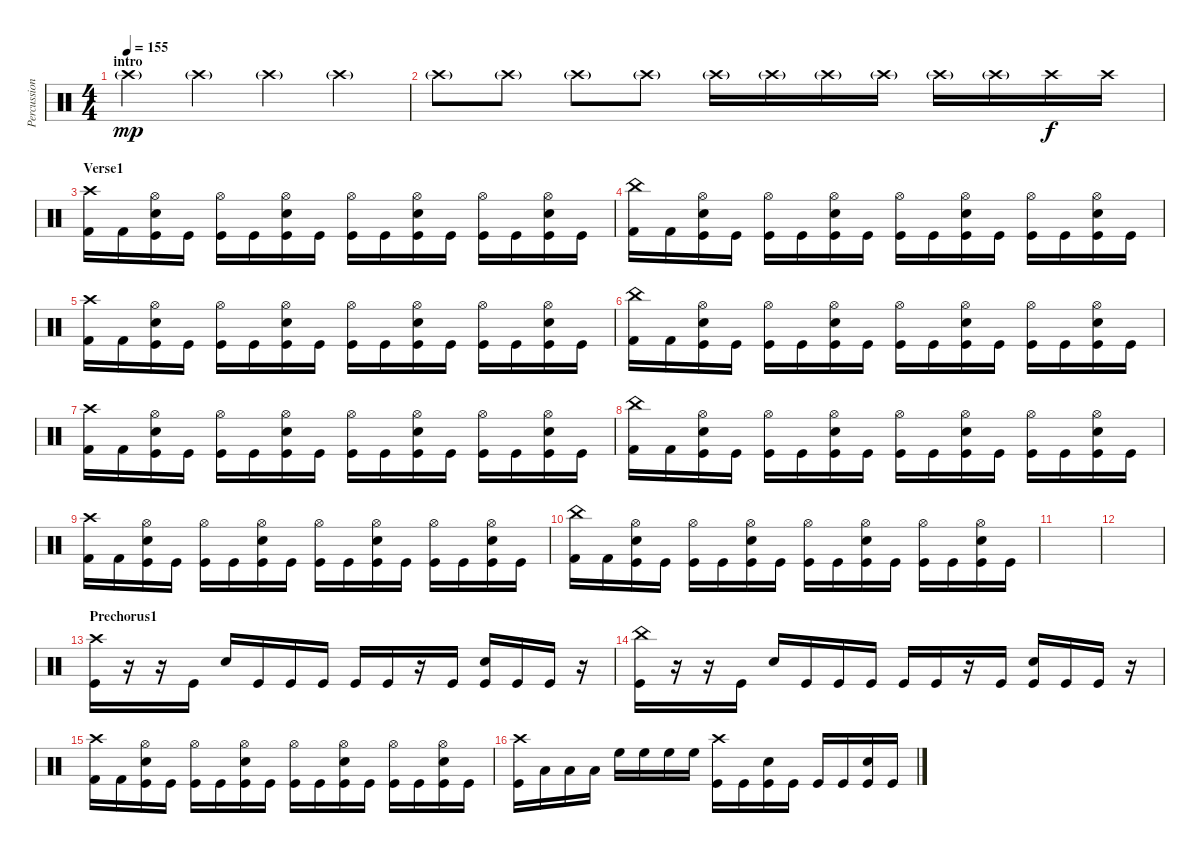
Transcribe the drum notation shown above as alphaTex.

\track ("Percussion" "Percussion") {instrument percussion}
\staff {score}
\articulation defaults
\ts (4 4)
\section ("" "intro")
\tempo 155
\clef neutral
\ks c "Crash high (hit)"{g}.4{dy mp} "Crash high (hit)"{g}.4 "Crash high (hit)"{g}.4 "Crash high (hit)"{g}.4
|
"Crash high (hit)"{g}.8 "Crash high (hit)"{g}.8 "Crash high (hit)"{g}.8 "Crash high (hit)"{g}.8 "Crash high (hit)"{g}.16 "Crash high (hit)"{g}.16 "Crash high (hit)"{g}.16 "Crash high (hit)"{g}.16 "Crash high (hit)"{g}.16 "Crash high (hit)"{g}.16 "Crash high (hit)".16{dy f} "Crash high (hit)".16 |
\section ("" "Verse1")
("Crash high (hit)" "Kick (hit) 2").16 "Kick (hit) 2".16 ("Hi-Hat (open)" "Electric Snare (hit)" "Kick (hit)").16 "Kick (hit)".16 ("Hi-Hat (open)" "Kick (hit)").16 "Kick (hit)".16 ("Hi-Hat (open)" "Electric Snare (hit)" "Kick (hit)").16 "Kick (hit)".16 ("Hi-Hat (open)" "Kick (hit)").16 "Kick (hit)".16 ("Hi-Hat (open)" "Electric Snare (hit)" "Kick (hit)").16 "Kick (hit)".16 ("Hi-Hat (open)" "Kick (hit)").16 "Kick (hit)".16 ("Hi-Hat (open)" "Electric Snare (hit)" "Kick (hit)").16 "Kick (hit)".16 |
("China (hit)" "Kick (hit) 2").16 "Kick (hit) 2".16 ("Hi-Hat (open)" "Electric Snare (hit)" "Kick (hit)").16 "Kick (hit)".16 ("Hi-Hat (open)" "Kick (hit)").16 "Kick (hit)".16 ("Hi-Hat (open)" "Electric Snare (hit)" "Kick (hit)").16 "Kick (hit)".16 ("Hi-Hat (open)" "Kick (hit)").16 "Kick (hit)".16 ("Hi-Hat (open)" "Electric Snare (hit)" "Kick (hit)").16 "Kick (hit)".16 ("Hi-Hat (open)" "Kick (hit)").16 "Kick (hit)".16 ("Hi-Hat (open)" "Electric Snare (hit)" "Kick (hit)").16 "Kick (hit)".16 |
("Crash high (hit)" "Kick (hit) 2").16 "Kick (hit) 2".16 ("Hi-Hat (open)" "Electric Snare (hit)" "Kick (hit)").16 "Kick (hit)".16 ("Hi-Hat (open)" "Kick (hit)").16 "Kick (hit)".16 ("Hi-Hat (open)" "Electric Snare (hit)" "Kick (hit)").16 "Kick (hit)".16 ("Hi-Hat (open)" "Kick (hit)").16 "Kick (hit)".16 ("Hi-Hat (open)" "Electric Snare (hit)" "Kick (hit)").16 "Kick (hit)".16 ("Hi-Hat (open)" "Kick (hit)").16 "Kick (hit)".16 ("Hi-Hat (open)" "Electric Snare (hit)" "Kick (hit)").16 "Kick (hit)".16 |
("China (hit)" "Kick (hit) 2").16 "Kick (hit) 2".16 ("Hi-Hat (open)" "Electric Snare (hit)" "Kick (hit)").16 "Kick (hit)".16 ("Hi-Hat (open)" "Kick (hit)").16 "Kick (hit)".16 ("Hi-Hat (open)" "Electric Snare (hit)" "Kick (hit)").16 "Kick (hit)".16 ("Hi-Hat (open)" "Kick (hit)").16 "Kick (hit)".16 ("Hi-Hat (open)" "Electric Snare (hit)" "Kick (hit)").16 "Kick (hit)".16 ("Hi-Hat (open)" "Kick (hit)").16 "Kick (hit)".16 ("Hi-Hat (open)" "Electric Snare (hit)" "Kick (hit)").16 "Kick (hit)".16 |
("Crash high (hit)" "Kick (hit) 2").16 "Kick (hit) 2".16 ("Hi-Hat (open)" "Electric Snare (hit)" "Kick (hit)").16 "Kick (hit)".16 ("Hi-Hat (open)" "Kick (hit)").16 "Kick (hit)".16 ("Hi-Hat (open)" "Electric Snare (hit)" "Kick (hit)").16 "Kick (hit)".16 ("Hi-Hat (open)" "Kick (hit)").16 "Kick (hit)".16 ("Hi-Hat (open)" "Electric Snare (hit)" "Kick (hit)").16 "Kick (hit)".16 ("Hi-Hat (open)" "Kick (hit)").16 "Kick (hit)".16 ("Hi-Hat (open)" "Electric Snare (hit)" "Kick (hit)").16 "Kick (hit)".16 |
("China (hit)" "Kick (hit) 2").16 "Kick (hit) 2".16 ("Hi-Hat (open)" "Electric Snare (hit)" "Kick (hit)").16 "Kick (hit)".16 ("Hi-Hat (open)" "Kick (hit)").16 "Kick (hit)".16 ("Hi-Hat (open)" "Electric Snare (hit)" "Kick (hit)").16 "Kick (hit)".16 ("Hi-Hat (open)" "Kick (hit)").16 "Kick (hit)".16 ("Hi-Hat (open)" "Electric Snare (hit)" "Kick (hit)").16 "Kick (hit)".16 ("Hi-Hat (open)" "Kick (hit)").16 "Kick (hit)".16 ("Hi-Hat (open)" "Electric Snare (hit)" "Kick (hit)").16 "Kick (hit)".16 |
("Crash high (hit)" "Kick (hit) 2").16 "Kick (hit) 2".16 ("Hi-Hat (open)" "Electric Snare (hit)" "Kick (hit)").16 "Kick (hit)".16 ("Hi-Hat (open)" "Kick (hit)").16 "Kick (hit)".16 ("Hi-Hat (open)" "Electric Snare (hit)" "Kick (hit)").16 "Kick (hit)".16 ("Hi-Hat (open)" "Kick (hit)").16 "Kick (hit)".16 ("Hi-Hat (open)" "Electric Snare (hit)" "Kick (hit)").16 "Kick (hit)".16 ("Hi-Hat (open)" "Kick (hit)").16 "Kick (hit)".16 ("Hi-Hat (open)" "Electric Snare (hit)" "Kick (hit)").16 "Kick (hit)".16 |
("China (hit)" "Kick (hit) 2").16 "Kick (hit) 2".16 ("Hi-Hat (open)" "Electric Snare (hit)" "Kick (hit)").16 "Kick (hit)".16 ("Hi-Hat (open)" "Kick (hit)").16 "Kick (hit)".16 ("Hi-Hat (open)" "Electric Snare (hit)" "Kick (hit)").16 "Kick (hit)".16 ("Hi-Hat (open)" "Kick (hit)").16 "Kick (hit)".16 ("Hi-Hat (open)" "Electric Snare (hit)" "Kick (hit)").16 "Kick (hit)".16 ("Hi-Hat (open)" "Kick (hit)").16 "Kick (hit)".16 ("Hi-Hat (open)" "Electric Snare (hit)" "Kick (hit)").16 "Kick (hit)".16 |
|
|
\section ("" "Prechorus1")
("Crash high (hit)" "Kick (hit)").16 r.16 r.16 "Kick (hit)".16 "Electric Snare (hit)".16 "Kick (hit)".16 "Kick (hit)".16 "Kick (hit)".16 "Kick (hit)".16 "Kick (hit)".16 r.16 "Kick (hit)".16 ("Electric Snare (hit)" "Kick (hit)").16 "Kick (hit)".16 "Kick (hit)".16 r.16 |
("China (hit)" "Kick (hit)").16 r.16 r.16 "Kick (hit)".16 "Electric Snare (hit)".16 "Kick (hit)".16 "Kick (hit)".16 "Kick (hit)".16 "Kick (hit)".16 "Kick (hit)".16 r.16 "Kick (hit)".16 ("Electric Snare (hit)" "Kick (hit)").16 "Kick (hit)".16 "Kick (hit)".16 r.16 |
("Crash high (hit)" "Kick (hit) 2").16 "Kick (hit) 2".16 ("Hi-Hat (open)" "Electric Snare (hit)" "Kick (hit)").16 "Kick (hit)".16 ("Hi-Hat (open)" "Kick (hit)").16 "Kick (hit)".16 ("Hi-Hat (open)" "Electric Snare (hit)" "Kick (hit)").16 "Kick (hit)".16 ("Hi-Hat (open)" "Kick (hit)").16 "Kick (hit)".16 ("Hi-Hat (open)" "Electric Snare (hit)" "Kick (hit)").16 "Kick (hit)".16 ("Hi-Hat (open)" "Kick (hit)").16 "Kick (hit)".16 ("Hi-Hat (open)" "Electric Snare (hit)" "Kick (hit)").16 "Kick (hit)".16 |
("Crash high (hit)" "Kick (hit)").16 "Low Tom (hit)".16 "Low Tom (hit)".16 "Low Tom (hit)".16 "High Floor Tom (hit)".16 "High Floor Tom (hit)".16 "High Floor Tom (hit)".16 "High Floor Tom (hit)".16 ("Crash high (hit)" "Kick (hit)").16 "Kick (hit)".16 ("Electric Snare (hit)" "Kick (hit)").16 "Kick (hit)".16 "Kick (hit)".16 "Kick (hit)".16 ("Electric Snare (hit)" "Kick (hit)").16 "Kick (hit)".16
